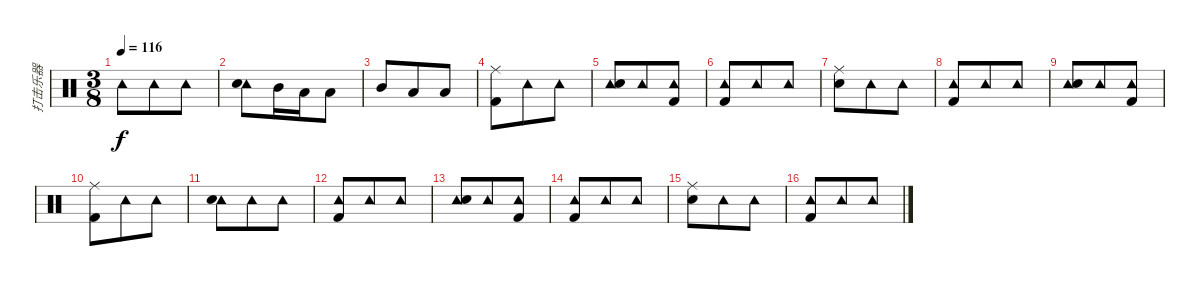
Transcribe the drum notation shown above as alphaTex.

\track ("打击乐器" "打击乐器") {instrument percussion}
\staff {score}
\articulation defaults
\ts (3 8)
\tempo 116
\clef neutral
\ks c "Tambourine (hit)".8{dy f} "Tambourine (hit)".8 "Tambourine (hit)".8
|
("Tambourine (hit)" "Snare (hit) 2").8 "Mid Tom (hit)".16 "Low Tom (hit)".16 "Low Floor Tom (hit)".8 |
"Mid Tom (hit)".8 "Low Tom (hit)".8 "Low Floor Tom (hit)".8 |
("Ride (middle)" "Kick (hit) 2").8 "Tambourine (hit)".8 "Tambourine (hit)".8 |
("Tambourine (hit)" "Snare (hit) 2").8 "Tambourine (hit)".8 ("Tambourine (hit)" "Kick (hit) 2").8 |
("Tambourine (hit)" "Kick (hit) 2").8 "Tambourine (hit)".8 "Tambourine (hit)".8 |
("Ride (middle)" "Snare (hit) 2").8 "Tambourine (hit)".8 "Tambourine (hit)".8 |
("Tambourine (hit)" "Kick (hit) 2").8 "Tambourine (hit)".8 "Tambourine (hit)".8 |
("Tambourine (hit)" "Snare (hit) 2").8 "Tambourine (hit)".8 ("Tambourine (hit)" "Kick (hit) 2").8 |
("Ride (middle)" "Kick (hit) 2").8 "Tambourine (hit)".8 "Tambourine (hit)".8 |
("Tambourine (hit)" "Snare (hit) 2").8 "Tambourine (hit)".8 "Tambourine (hit)".8 |
("Tambourine (hit)" "Kick (hit) 2").8 "Tambourine (hit)".8 "Tambourine (hit)".8 |
("Tambourine (hit)" "Snare (hit) 2").8 "Tambourine (hit)".8 ("Tambourine (hit)" "Kick (hit) 2").8 |
("Tambourine (hit)" "Kick (hit) 2").8 "Tambourine (hit)".8 "Tambourine (hit)".8 |
("Ride (middle)" "Snare (hit) 2").8 "Tambourine (hit)".8 "Tambourine (hit)".8 |
("Tambourine (hit)" "Kick (hit) 2").8 "Tambourine (hit)".8 "Tambourine (hit)".8
